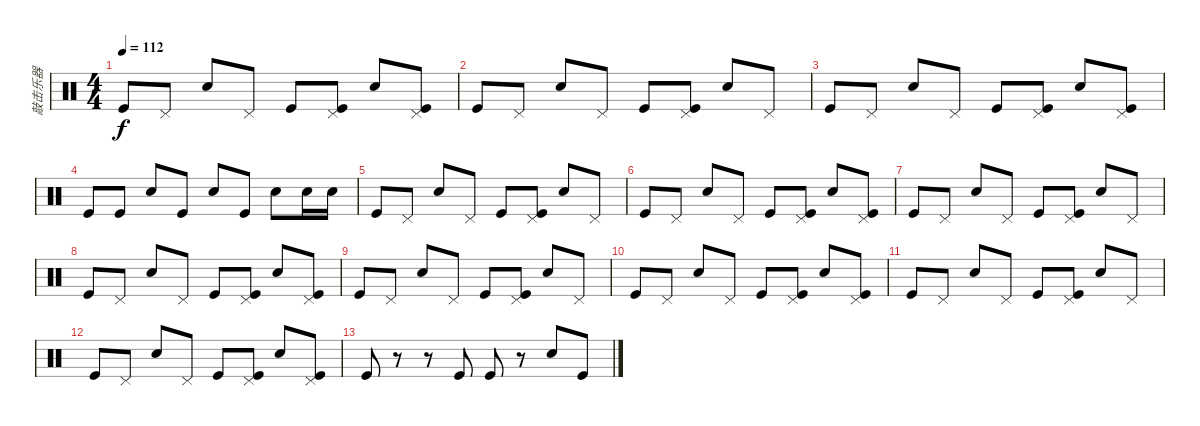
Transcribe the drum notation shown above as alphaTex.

\track ("敲击乐器" "敲击乐器") {instrument percussion}
\staff {score}
\articulation defaults
\ts (4 4)
\tempo 112
\clef neutral
\ks c "Kick (hit)".8{dy f} "Pedal Hi-Hat (hit)".8 "Electric Snare (hit)".8 "Pedal Hi-Hat (hit)".8 "Kick (hit)".8
("Pedal Hi-Hat (hit)" "Kick (hit)").8 "Electric Snare (hit)".8 ("Pedal Hi-Hat (hit)" "Kick (hit)").8 |
"Kick (hit)".8 "Pedal Hi-Hat (hit)".8 "Electric Snare (hit)".8 "Pedal Hi-Hat (hit)".8 "Kick (hit)".8 ("Pedal Hi-Hat (hit)" "Kick (hit)").8 "Electric Snare (hit)".8 "Pedal Hi-Hat (hit)".8 |
"Kick (hit)".8 "Pedal Hi-Hat (hit)".8 "Electric Snare (hit)".8 "Pedal Hi-Hat (hit)".8 "Kick (hit)".8 ("Pedal Hi-Hat (hit)" "Kick (hit)").8 "Electric Snare (hit)".8 ("Pedal Hi-Hat (hit)" "Kick (hit)").8 |
"Kick (hit)".8 "Kick (hit)".8 "Electric Snare (hit)".8 "Kick (hit)".8 "Electric Snare (hit)".8 "Kick (hit)".8 "Electric Snare (hit)".8 "Electric Snare (hit)".16 "Electric Snare (hit)".16 |
"Kick (hit)".8 "Pedal Hi-Hat (hit)".8 "Electric Snare (hit)".8 "Pedal Hi-Hat (hit)".8 "Kick (hit)".8 ("Pedal Hi-Hat (hit)" "Kick (hit)").8 "Electric Snare (hit)".8 "Pedal Hi-Hat (hit)".8 |
"Kick (hit)".8 "Pedal Hi-Hat (hit)".8 "Electric Snare (hit)".8 "Pedal Hi-Hat (hit)".8 "Kick (hit)".8 ("Pedal Hi-Hat (hit)" "Kick (hit)").8 "Electric Snare (hit)".8 ("Pedal Hi-Hat (hit)" "Kick (hit)").8 |
"Kick (hit)".8 "Pedal Hi-Hat (hit)".8 "Electric Snare (hit)".8 "Pedal Hi-Hat (hit)".8 "Kick (hit)".8 ("Pedal Hi-Hat (hit)" "Kick (hit)").8 "Electric Snare (hit)".8 "Pedal Hi-Hat (hit)".8 |
"Kick (hit)".8 "Pedal Hi-Hat (hit)".8 "Electric Snare (hit)".8 "Pedal Hi-Hat (hit)".8 "Kick (hit)".8 ("Pedal Hi-Hat (hit)" "Kick (hit)").8 "Electric Snare (hit)".8 ("Pedal Hi-Hat (hit)" "Kick (hit)").8 |
"Kick (hit)".8 "Pedal Hi-Hat (hit)".8 "Electric Snare (hit)".8 "Pedal Hi-Hat (hit)".8 "Kick (hit)".8 ("Pedal Hi-Hat (hit)" "Kick (hit)").8 "Electric Snare (hit)".8 "Pedal Hi-Hat (hit)".8 |
"Kick (hit)".8 "Pedal Hi-Hat (hit)".8 "Electric Snare (hit)".8 "Pedal Hi-Hat (hit)".8 "Kick (hit)".8 ("Pedal Hi-Hat (hit)" "Kick (hit)").8 "Electric Snare (hit)".8 ("Pedal Hi-Hat (hit)" "Kick (hit)").8 |
"Kick (hit)".8 "Pedal Hi-Hat (hit)".8 "Electric Snare (hit)".8 "Pedal Hi-Hat (hit)".8 "Kick (hit)".8 ("Pedal Hi-Hat (hit)" "Kick (hit)").8 "Electric Snare (hit)".8 "Pedal Hi-Hat (hit)".8 |
"Kick (hit)".8 "Pedal Hi-Hat (hit)".8 "Electric Snare (hit)".8 "Pedal Hi-Hat (hit)".8 "Kick (hit)".8 ("Pedal Hi-Hat (hit)" "Kick (hit)").8 "Electric Snare (hit)".8 ("Pedal Hi-Hat (hit)" "Kick (hit)").8 |
"Kick (hit)".8 r.8 r.8 "Kick (hit)".8 "Kick (hit)".8 r.8 "Electric Snare (hit)".8 "Kick (hit)".8
